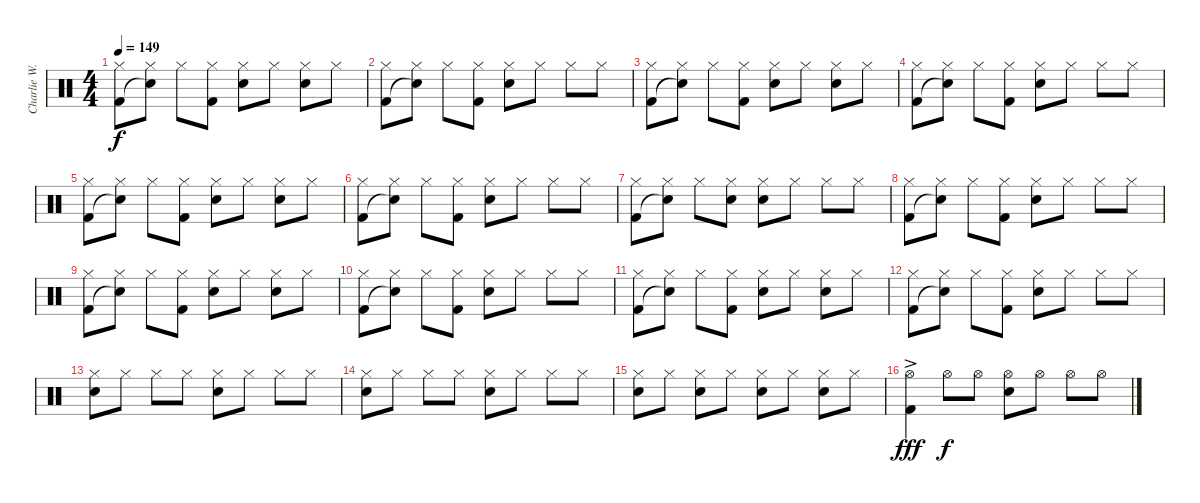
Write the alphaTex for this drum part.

\track ("Charlie W. drums" "Charlie W.") {instrument percussion}
\staff {score}
\articulation defaults
\ts (4 4)
\tempo 149
\clef neutral
\ks c
("Hi-Hat (closed)" "Kick (hit) 2").8{dy f} ("Hi-Hat (closed)" "Snare (hit)"{t}).8 "Hi-Hat (closed)".8 ("Hi-Hat (closed)" "Kick (hit) 2").8 ("Hi-Hat (closed)" "Snare (hit) 2").8 "Hi-Hat (closed)".8 ("Hi-Hat (closed)" "Snare (hit) 2").8 "Hi-Hat (closed)".8 |
("Hi-Hat (closed)" "Kick (hit) 2").8 ("Hi-Hat (closed)" "Snare (hit)"{t}).8 "Hi-Hat (closed)".8 ("Hi-Hat (closed)" "Kick (hit) 2").8 ("Hi-Hat (closed)" "Snare (hit) 2").8 "Hi-Hat (closed)".8 "Hi-Hat (closed)".8 "Hi-Hat (closed)".8 |
("Hi-Hat (closed)" "Kick (hit) 2").8 ("Hi-Hat (closed)" "Snare (hit)"{t}).8 "Hi-Hat (closed)".8 ("Hi-Hat (closed)" "Kick (hit) 2").8 ("Hi-Hat (closed)" "Snare (hit) 2").8 "Hi-Hat (closed)".8 ("Hi-Hat (closed)" "Snare (hit) 2").8 "Hi-Hat (closed)".8 |
("Hi-Hat (closed)" "Kick (hit) 2").8 ("Hi-Hat (closed)" "Snare (hit)"{t}).8 "Hi-Hat (closed)".8 ("Hi-Hat (closed)" "Kick (hit) 2").8 ("Hi-Hat (closed)" "Snare (hit) 2").8 "Hi-Hat (closed)".8 "Hi-Hat (closed)".8 "Hi-Hat (closed)".8 |
("Hi-Hat (closed)" "Kick (hit) 2").8 ("Hi-Hat (closed)" "Snare (hit)"{t}).8 "Hi-Hat (closed)".8 ("Hi-Hat (closed)" "Kick (hit) 2").8 ("Hi-Hat (closed)" "Snare (hit) 2").8 "Hi-Hat (closed)".8 ("Hi-Hat (closed)" "Snare (hit) 2").8 "Hi-Hat (closed)".8 |
("Hi-Hat (closed)" "Kick (hit) 2").8 ("Hi-Hat (closed)" "Snare (hit)"{t}).8 "Hi-Hat (closed)".8 ("Hi-Hat (closed)" "Kick (hit) 2").8 ("Hi-Hat (closed)" "Snare (hit) 2").8 "Hi-Hat (closed)".8 "Hi-Hat (closed)".8 "Hi-Hat (closed)".8 |
("Hi-Hat (closed)" "Kick (hit) 2").8 ("Hi-Hat (closed)" "Snare (hit)"{t}).8 "Hi-Hat (closed)".8 ("Hi-Hat (closed)" "Snare (hit) 2").8 ("Hi-Hat (closed)" "Snare (hit) 2").8 "Hi-Hat (closed)".8 "Hi-Hat (closed)".8 "Hi-Hat (closed)".8 |
("Hi-Hat (closed)" "Kick (hit) 2").8 ("Hi-Hat (closed)" "Snare (hit)"{t}).8 "Hi-Hat (closed)".8 ("Hi-Hat (closed)" "Kick (hit) 2").8 ("Hi-Hat (closed)" "Snare (hit) 2").8 "Hi-Hat (closed)".8 "Hi-Hat (closed)".8 "Hi-Hat (closed)".8 |
("Hi-Hat (closed)" "Kick (hit) 2").8 ("Hi-Hat (closed)" "Snare (hit)"{t}).8 "Hi-Hat (closed)".8 ("Hi-Hat (closed)" "Kick (hit) 2").8 ("Hi-Hat (closed)" "Snare (hit) 2").8 "Hi-Hat (closed)".8 ("Hi-Hat (closed)" "Snare (hit) 2").8 "Hi-Hat (closed)".8 |
("Hi-Hat (closed)" "Kick (hit) 2").8 ("Hi-Hat (closed)" "Snare (hit)"{t}).8 "Hi-Hat (closed)".8 ("Hi-Hat (closed)" "Kick (hit) 2").8 ("Hi-Hat (closed)" "Snare (hit) 2").8 "Hi-Hat (closed)".8 "Hi-Hat (closed)".8 "Hi-Hat (closed)".8 |
("Hi-Hat (closed)" "Kick (hit) 2").8 ("Hi-Hat (closed)" "Snare (hit)"{t}).8 "Hi-Hat (closed)".8 ("Hi-Hat (closed)" "Kick (hit) 2").8 ("Hi-Hat (closed)" "Snare (hit) 2").8 "Hi-Hat (closed)".8 ("Hi-Hat (closed)" "Snare (hit) 2").8 "Hi-Hat (closed)".8 |
("Hi-Hat (closed)" "Kick (hit) 2").8 ("Hi-Hat (closed)" "Snare (hit)"{t}).8 "Hi-Hat (closed)".8 ("Hi-Hat (closed)" "Kick (hit) 2").8 ("Hi-Hat (closed)" "Snare (hit) 2").8 "Hi-Hat (closed)".8 "Hi-Hat (closed)".8 "Hi-Hat (closed)".8 |
("Hi-Hat (closed)" "Snare (hit) 2").8 "Hi-Hat (closed)".8 "Hi-Hat (closed)".8 "Hi-Hat (closed)".8 ("Hi-Hat (closed)" "Snare (hit) 2").8 "Hi-Hat (closed)".8 "Hi-Hat (closed)".8 "Hi-Hat (closed)".8 |
("Hi-Hat (closed)" "Snare (hit) 2").8 "Hi-Hat (closed)".8 "Hi-Hat (closed)".8 "Hi-Hat (closed)".8 ("Hi-Hat (closed)" "Snare (hit) 2").8 "Hi-Hat (closed)".8 "Hi-Hat (closed)".8 "Hi-Hat (closed)".8 |
("Hi-Hat (closed)" "Snare (hit) 2").8 "Hi-Hat (closed)".8 ("Hi-Hat (closed)" "Snare (hit) 2").8 "Hi-Hat (closed)".8 ("Hi-Hat (closed)" "Snare (hit) 2").8 "Hi-Hat (closed)".8 ("Hi-Hat (closed)" "Snare (hit) 2").8 "Hi-Hat (closed)".8 |
("Hi-Hat (open)"{ac} "Kick (hit) 2"{ac}).4{dy fff} "Hi-Hat (open)".8{dy f} "Hi-Hat (open)".8 ("Hi-Hat (open)" "Snare (hit) 2").8 "Hi-Hat (open)".8 "Hi-Hat (open)".8 "Hi-Hat (open)".8
